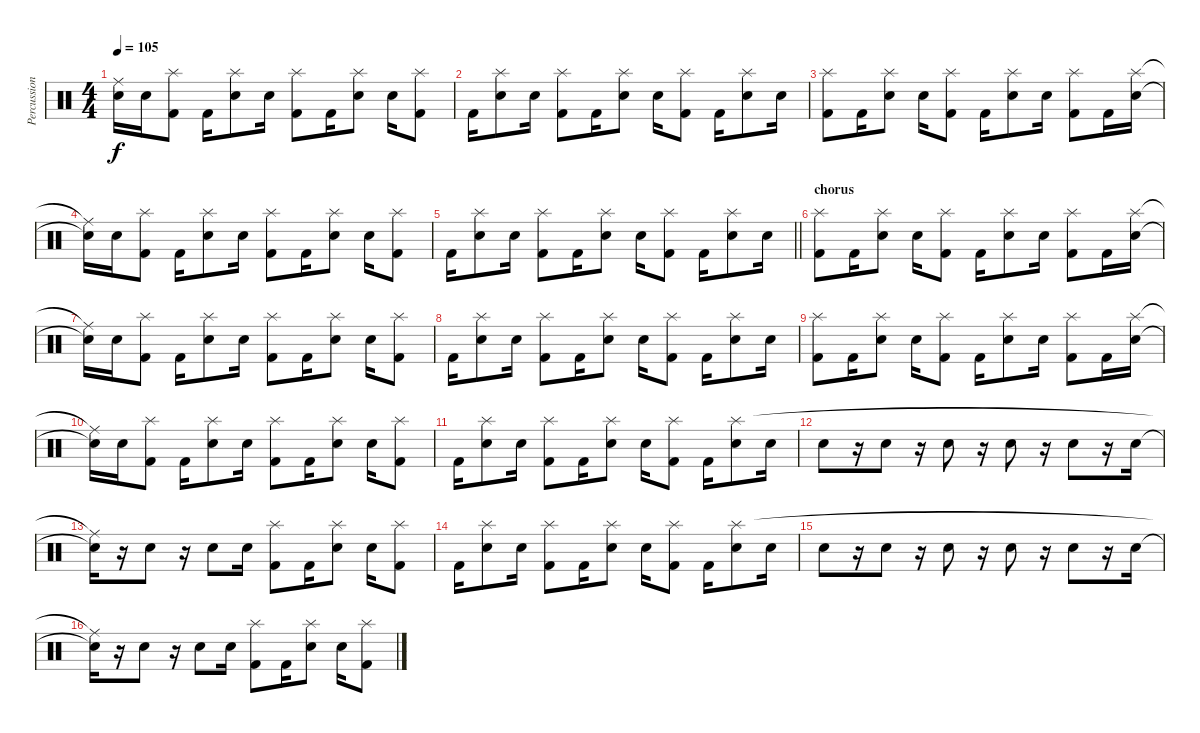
\track ("Percussion" "Percussion") {instrument percussion}
\staff {score}
\articulation defaults
\ts (4 4)
\tempo 105
\clef neutral
\ks c
("Electric Snare (hit)"{t} "Ride (middle)"{t}).16{dy f} "Electric Snare (hit)".16 ("Kick (hit) 2" "Splash (hit)").8 "Kick (hit) 2".16 ("Electric Snare (hit)" "Splash (hit)").8 "Electric Snare (hit)".16 ("Kick (hit) 2" "Splash (hit)").8 "Kick (hit) 2".16 ("Electric Snare (hit)" "Splash (hit)").8 "Electric Snare (hit)".16 ("Kick (hit) 2" "Splash (hit)").8 |
"Kick (hit) 2".16 ("Electric Snare (hit)" "Splash (hit)").8 "Electric Snare (hit)".16 ("Kick (hit) 2" "Splash (hit)").8 "Kick (hit) 2".16 ("Electric Snare (hit)" "Splash (hit)").8 "Electric Snare (hit)".16 ("Kick (hit) 2" "Splash (hit)").8 "Kick (hit) 2".16 ("Electric Snare (hit)" "Splash (hit)").8 "Electric Snare (hit)".16 |
("Kick (hit) 2" "Splash (hit)").8 "Kick (hit) 2".16 ("Electric Snare (hit)" "Splash (hit)").8 "Electric Snare (hit)".16 ("Kick (hit) 2" "Splash (hit)").8 "Kick (hit) 2".16 ("Electric Snare (hit)" "Splash (hit)").8 "Electric Snare (hit)".16 ("Kick (hit) 2" "Splash (hit)").8 "Kick (hit) 2".16 ("Electric Snare (hit)" "Splash (hit)").16 |
("Electric Snare (hit)"{t} "Ride (middle)"{t}).16 "Electric Snare (hit)".16 ("Kick (hit) 2" "Splash (hit)").8 "Kick (hit) 2".16 ("Electric Snare (hit)" "Splash (hit)").8 "Electric Snare (hit)".16 ("Kick (hit) 2" "Splash (hit)").8 "Kick (hit) 2".16 ("Electric Snare (hit)" "Splash (hit)").8 "Electric Snare (hit)".16 ("Kick (hit) 2" "Splash (hit)").8 |
\barLineRight lightlight "Kick (hit) 2".16
("Electric Snare (hit)" "Splash (hit)").8 "Electric Snare (hit)".16 ("Kick (hit) 2" "Splash (hit)").8 "Kick (hit) 2".16 ("Electric Snare (hit)" "Splash (hit)").8 "Electric Snare (hit)".16 ("Kick (hit) 2" "Splash (hit)").8 "Kick (hit) 2".16 ("Electric Snare (hit)" "Splash (hit)").8 "Electric Snare (hit)".16 |
\section ("" "chorus")
("Kick (hit) 2" "Splash (hit)").8 "Kick (hit) 2".16 ("Electric Snare (hit)" "Splash (hit)").8 "Electric Snare (hit)".16 ("Kick (hit) 2" "Splash (hit)").8 "Kick (hit) 2".16 ("Electric Snare (hit)" "Splash (hit)").8 "Electric Snare (hit)".16 ("Kick (hit) 2" "Splash (hit)").8 "Kick (hit) 2".16 ("Electric Snare (hit)" "Splash (hit)").16 |
("Electric Snare (hit)"{t} "Ride (middle)"{t}).16 "Electric Snare (hit)".16 ("Kick (hit) 2" "Splash (hit)").8 "Kick (hit) 2".16 ("Electric Snare (hit)" "Splash (hit)").8 "Electric Snare (hit)".16 ("Kick (hit) 2" "Splash (hit)").8 "Kick (hit) 2".16 ("Electric Snare (hit)" "Splash (hit)").8 "Electric Snare (hit)".16 ("Kick (hit) 2" "Splash (hit)").8 |
"Kick (hit) 2".16 ("Electric Snare (hit)" "Splash (hit)").8 "Electric Snare (hit)".16 ("Kick (hit) 2" "Splash (hit)").8 "Kick (hit) 2".16 ("Electric Snare (hit)" "Splash (hit)").8 "Electric Snare (hit)".16 ("Kick (hit) 2" "Splash (hit)").8 "Kick (hit) 2".16 ("Electric Snare (hit)" "Splash (hit)").8 "Electric Snare (hit)".16 |
("Kick (hit) 2" "Splash (hit)").8 "Kick (hit) 2".16 ("Electric Snare (hit)" "Splash (hit)").8 "Electric Snare (hit)".16 ("Kick (hit) 2" "Splash (hit)").8 "Kick (hit) 2".16 ("Electric Snare (hit)" "Splash (hit)").8 "Electric Snare (hit)".16 ("Kick (hit) 2" "Splash (hit)").8 "Kick (hit) 2".16 ("Electric Snare (hit)" "Splash (hit)").16 |
("Electric Snare (hit)"{t} "Ride (middle)"{t}).16 "Electric Snare (hit)".16 ("Kick (hit) 2" "Splash (hit)").8 "Kick (hit) 2".16 ("Electric Snare (hit)" "Splash (hit)").8 "Electric Snare (hit)".16 ("Kick (hit) 2" "Splash (hit)").8 "Kick (hit) 2".16 ("Electric Snare (hit)" "Splash (hit)").8 "Electric Snare (hit)".16 ("Kick (hit) 2" "Splash (hit)").8 |
"Kick (hit) 2".16 ("Electric Snare (hit)" "Splash (hit)").8 "Electric Snare (hit)".16 ("Kick (hit) 2" "Splash (hit)").8 "Kick (hit) 2".16 ("Electric Snare (hit)" "Splash (hit)").8 "Electric Snare (hit)".16 ("Kick (hit) 2" "Splash (hit)").8 "Kick (hit) 2".16 ("Electric Snare (hit)" "Splash (hit)").8 "Electric Snare (hit)".16 |
"Electric Snare (hit)".8 r.16 "Electric Snare (hit)".8 r.16 "Electric Snare (hit)".8 r.16 "Electric Snare (hit)".8 r.16 "Electric Snare (hit)".8 r.16 "Electric Snare (hit)".16 |
("Electric Snare (hit)"{t} "Ride (middle)"{t}).16 r.16 "Electric Snare (hit)".8 r.16 "Electric Snare (hit)".8 "Electric Snare (hit)".16 ("Kick (hit) 2" "Splash (hit)").8 "Kick (hit) 2".16 ("Electric Snare (hit)" "Splash (hit)").8 "Electric Snare (hit)".16 ("Kick (hit) 2" "Splash (hit)").8 |
"Kick (hit) 2".16 ("Electric Snare (hit)" "Splash (hit)").8 "Electric Snare (hit)".16 ("Kick (hit) 2" "Splash (hit)").8 "Kick (hit) 2".16 ("Electric Snare (hit)" "Splash (hit)").8 "Electric Snare (hit)".16 ("Kick (hit) 2" "Splash (hit)").8 "Kick (hit) 2".16 ("Electric Snare (hit)" "Splash (hit)").8 "Electric Snare (hit)".16 |
"Electric Snare (hit)".8 r.16 "Electric Snare (hit)".8 r.16 "Electric Snare (hit)".8 r.16 "Electric Snare (hit)".8 r.16 "Electric Snare (hit)".8 r.16 "Electric Snare (hit)".16 |
("Electric Snare (hit)"{t} "Ride (middle)"{t}).16 r.16 "Electric Snare (hit)".8 r.16 "Electric Snare (hit)".8 "Electric Snare (hit)".16 ("Kick (hit) 2" "Splash (hit)").8 "Kick (hit) 2".16 ("Electric Snare (hit)" "Splash (hit)").8 "Electric Snare (hit)".16 ("Kick (hit) 2" "Splash (hit)").8
